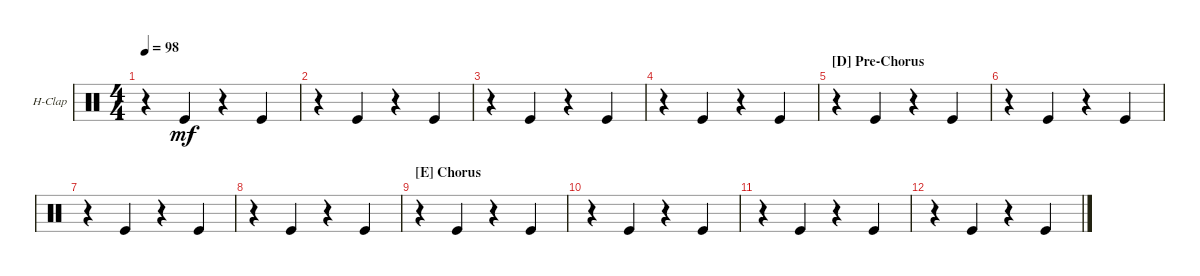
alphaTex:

\defaultSystemsLayout 4
\bracketExtendMode groupsimilarinstruments
\firstSystemTrackNameOrientation horizontal
\otherSystemsTrackNameOrientation horizontal
\track ("Hand Clap" "H-Clap") {instrument percussion}
\staff {score}
\articulation defaults
\ts (4 4)
\tempo 98
\clef neutral
\ks c
r.4{dy mf} "Kick (hit)".4 r.4 "Kick (hit)".4 |
r.4 "Kick (hit)".4 r.4 "Kick (hit)".4 |
r.4 "Kick (hit)".4 r.4 "Kick (hit)".4 |
r.4 "Kick (hit)".4 r.4 "Kick (hit)".4 |
\section ("D" "Pre-Chorus")
r.4 "Kick (hit)".4 r.4 "Kick (hit)".4 |
r.4 "Kick (hit)".4 r.4 "Kick (hit)".4 |
r.4 "Kick (hit)".4 r.4 "Kick (hit)".4 |
r.4 "Kick (hit)".4 r.4 "Kick (hit)".4 |
\section ("E" "Chorus")
r.4 "Kick (hit)".4 r.4 "Kick (hit)".4 |
r.4 "Kick (hit)".4 r.4 "Kick (hit)".4 |
r.4 "Kick (hit)".4 r.4 "Kick (hit)".4 |
r.4 "Kick (hit)".4 r.4 "Kick (hit)".4
